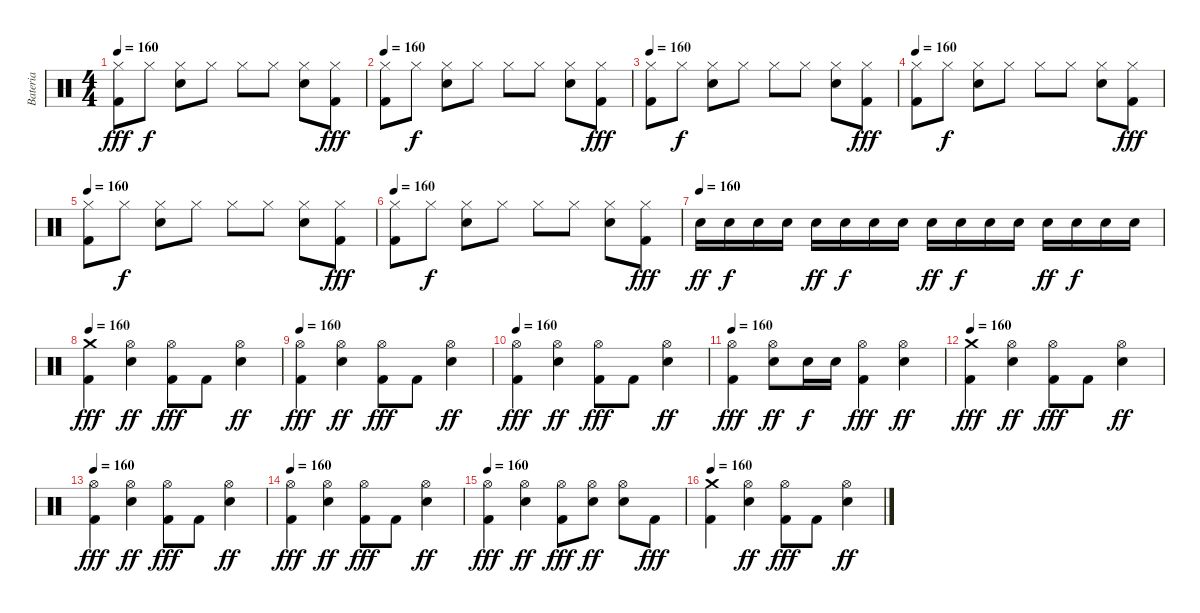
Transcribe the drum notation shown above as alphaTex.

\track ("Bateria" "Bateria") {instrument percussion}
\staff {score}
\articulation defaults
\ts (4 4)
\tempo 160
\clef neutral
\ks c
("Hi-Hat (closed)" "Kick (hit) 2").8{dy fff} "Hi-Hat (closed)".8{dy f} ("Hi-Hat (closed)" "Snare (hit) 2").8 "Hi-Hat (closed)".8 "Hi-Hat (closed)".8 "Hi-Hat (closed)".8 ("Hi-Hat (closed)" "Snare (hit) 2").8 ("Hi-Hat (closed)" "Kick (hit) 2").8{dy fff} |
\tempo 160
("Hi-Hat (closed)" "Kick (hit) 2").8 "Hi-Hat (closed)".8{dy f} ("Hi-Hat (closed)" "Snare (hit) 2").8 "Hi-Hat (closed)".8 "Hi-Hat (closed)".8 "Hi-Hat (closed)".8 ("Hi-Hat (closed)" "Snare (hit) 2").8 ("Hi-Hat (closed)" "Kick (hit) 2").8{dy fff} |
\tempo 160
("Hi-Hat (closed)" "Kick (hit) 2").8 "Hi-Hat (closed)".8{dy f} ("Hi-Hat (closed)" "Snare (hit) 2").8 "Hi-Hat (closed)".8 "Hi-Hat (closed)".8 "Hi-Hat (closed)".8 ("Hi-Hat (closed)" "Snare (hit) 2").8 ("Hi-Hat (closed)" "Kick (hit) 2").8{dy fff} |
\tempo 160
("Hi-Hat (closed)" "Kick (hit) 2").8 "Hi-Hat (closed)".8{dy f} ("Hi-Hat (closed)" "Snare (hit) 2").8 "Hi-Hat (closed)".8 "Hi-Hat (closed)".8 "Hi-Hat (closed)".8 ("Hi-Hat (closed)" "Snare (hit) 2").8 ("Hi-Hat (closed)" "Kick (hit) 2").8{dy fff} |
\tempo 160
("Hi-Hat (closed)" "Kick (hit) 2").8 "Hi-Hat (closed)".8{dy f} ("Hi-Hat (closed)" "Snare (hit) 2").8 "Hi-Hat (closed)".8 "Hi-Hat (closed)".8 "Hi-Hat (closed)".8 ("Hi-Hat (closed)" "Snare (hit) 2").8 ("Hi-Hat (closed)" "Kick (hit) 2").8{dy fff} |
\tempo 160
("Hi-Hat (closed)" "Kick (hit) 2").8 "Hi-Hat (closed)".8{dy f} ("Hi-Hat (closed)" "Snare (hit) 2").8 "Hi-Hat (closed)".8 "Hi-Hat (closed)".8 "Hi-Hat (closed)".8 ("Hi-Hat (closed)" "Snare (hit) 2").8 ("Hi-Hat (closed)" "Kick (hit) 2").8{dy fff} |
\tempo (160)
"Electric Snare (hit)".16{dy ff} "Electric Snare (hit)".16{dy f} "Electric Snare (hit)".16 "Electric Snare (hit)".16 "Electric Snare (hit)".16{dy ff} "Electric Snare (hit)".16{dy f} "Electric Snare (hit)".16 "Electric Snare (hit)".16 "Electric Snare (hit)".16{dy ff} "Electric Snare (hit)".16{dy f} "Electric Snare (hit)".16 "Electric Snare (hit)".16 "Electric Snare (hit)".16{dy ff} "Electric Snare (hit)".16{dy f} "Electric Snare (hit)".16 "Electric Snare (hit)".16 |
\tempo 160
("Crash medium (hit)" "Kick (hit) 2").4{dy fff} ("Hi-Hat (open)" "Electric Snare (hit)").4{dy ff} ("Hi-Hat (open)" "Kick (hit) 2").8{dy fff} "Kick (hit) 2".8 ("Hi-Hat (open)" "Electric Snare (hit)").4{dy ff} |
\tempo 160
("Hi-Hat (open)" "Kick (hit) 2").4{dy fff} ("Hi-Hat (open)" "Electric Snare (hit)").4{dy ff} ("Hi-Hat (open)" "Kick (hit) 2").8{dy fff} "Kick (hit) 2".8 ("Hi-Hat (open)" "Electric Snare (hit)").4{dy ff} |
\tempo 160
("Hi-Hat (open)" "Kick (hit) 2").4{dy fff} ("Hi-Hat (open)" "Electric Snare (hit)").4{dy ff} ("Hi-Hat (open)" "Kick (hit) 2").8{dy fff} "Kick (hit) 2".8 ("Hi-Hat (open)" "Electric Snare (hit)").4{dy ff} |
\tempo 160
("Hi-Hat (open)" "Kick (hit) 2").4{dy fff} ("Hi-Hat (open)" "Electric Snare (hit)").8{dy ff} "Electric Snare (hit)".16{dy f} "Electric Snare (hit)".16 ("Hi-Hat (open)" "Kick (hit) 2").4{dy fff} ("Hi-Hat (open)" "Electric Snare (hit)").4{dy ff} |
\tempo 160
("Crash medium (hit)" "Kick (hit) 2").4{dy fff} ("Hi-Hat (open)" "Electric Snare (hit)").4{dy ff} ("Hi-Hat (open)" "Kick (hit) 2").8{dy fff} "Kick (hit) 2".8 ("Hi-Hat (open)" "Electric Snare (hit)").4{dy ff} |
\tempo 160
("Hi-Hat (open)" "Kick (hit) 2").4{dy fff} ("Hi-Hat (open)" "Electric Snare (hit)").4{dy ff} ("Hi-Hat (open)" "Kick (hit) 2").8{dy fff} "Kick (hit) 2".8 ("Hi-Hat (open)" "Electric Snare (hit)").4{dy ff} |
\tempo 160
("Hi-Hat (open)" "Kick (hit) 2").4{dy fff} ("Hi-Hat (open)" "Electric Snare (hit)").4{dy ff} ("Hi-Hat (open)" "Kick (hit) 2").8{dy fff} "Kick (hit) 2".8 ("Hi-Hat (open)" "Electric Snare (hit)").4{dy ff} |
\tempo 160
("Hi-Hat (open)" "Kick (hit) 2").4{dy fff} ("Hi-Hat (open)" "Electric Snare (hit)").4{dy ff} ("Hi-Hat (open)" "Kick (hit) 2").8{dy fff} ("Hi-Hat (open)" "Electric Snare (hit)").8{dy ff} ("Hi-Hat (open)" "Electric Snare (hit)").8 "Kick (hit) 2".8{dy fff} |
\tempo 160
("Crash medium (hit)" "Kick (hit) 2").4 ("Hi-Hat (open)" "Electric Snare (hit)").4{dy ff} ("Hi-Hat (open)" "Kick (hit) 2").8{dy fff} "Kick (hit) 2".8 ("Hi-Hat (open)" "Electric Snare (hit)").4{dy ff}
